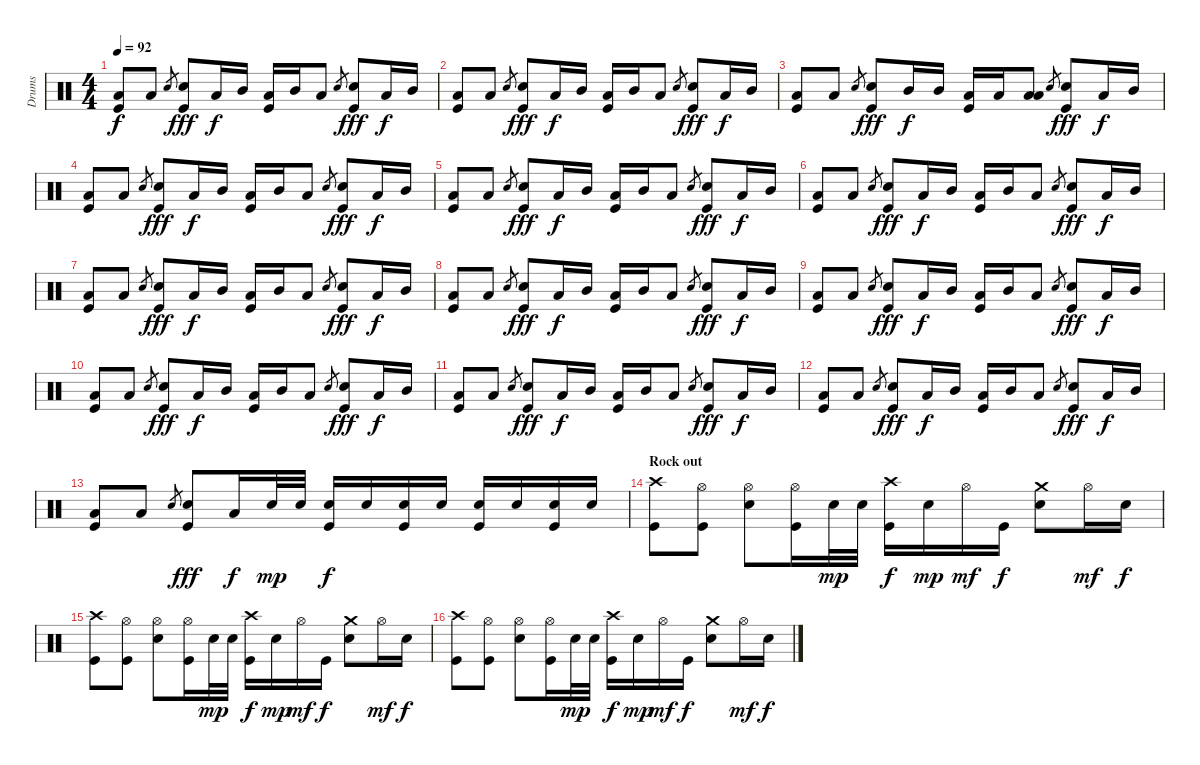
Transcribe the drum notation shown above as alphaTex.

\track ("Drums" "Drums") {instrument percussion}
\staff {score}
\articulation defaults
\ts (4 4)
\tempo 92
\clef neutral
\ks c
("Low Floor Tom (hit)" "Kick (hit)").8{dy f} "Low Floor Tom (hit)".8 "Electric Snare (hit)".8{gr} ("Electric Snare (hit)" "Kick (hit)").8{dy fff} "Low Floor Tom (hit)".16{dy f} "Mid Tom (hit)".16 ("Low Floor Tom (hit)" "Kick (hit)").16 "Mid Tom (hit)".16 "Low Tom (hit)".8 "Electric Snare (hit)".8{gr} ("Electric Snare (hit)" "Kick (hit)").8{dy fff} "Low Tom (hit)".16{dy f} "Mid Tom (hit)".16 |
("Low Floor Tom (hit)" "Kick (hit)").8 "Low Floor Tom (hit)".8 "Electric Snare (hit)".8{gr} ("Electric Snare (hit)" "Kick (hit)").8{dy fff} "Low Floor Tom (hit)".16{dy f} "Mid Tom (hit)".16 ("Low Floor Tom (hit)" "Kick (hit)").16 "Mid Tom (hit)".16 "Low Tom (hit)".8 "Electric Snare (hit)".8{gr} ("Electric Snare (hit)" "Kick (hit)").8{dy fff} "Low Tom (hit)".16{dy f} "Mid Tom (hit)".16 |
("Low Floor Tom (hit)" "Kick (hit)").8 "Low Floor Tom (hit)".8 "Electric Snare (hit)".8{gr} ("Electric Snare (hit)" "Kick (hit)").8{dy fff} "Mid Tom (hit)".16{dy f} "Mid Tom (hit)".16 ("Low Tom (hit)" "Kick (hit)").16 "Low Tom (hit)".16 ("Low Tom (hit)" "Low Floor Tom (hit)").8 "Electric Snare (hit)".8{gr} ("Electric Snare (hit)" "Kick (hit)").8{dy fff} "Low Tom (hit)".16{dy f} "Mid Tom (hit)".16 |
("Low Floor Tom (hit)" "Kick (hit)").8 "Low Floor Tom (hit)".8 "Electric Snare (hit)".8{gr} ("Electric Snare (hit)" "Kick (hit)").8{dy fff} "Low Floor Tom (hit)".16{dy f} "Mid Tom (hit)".16 ("Low Floor Tom (hit)" "Kick (hit)").16 "Mid Tom (hit)".16 "Low Tom (hit)".8 "Electric Snare (hit)".8{gr} ("Electric Snare (hit)" "Kick (hit)").8{dy fff} "Low Tom (hit)".16{dy f} "Mid Tom (hit)".16 |
("Low Floor Tom (hit)" "Kick (hit)").8 "Low Floor Tom (hit)".8 "Electric Snare (hit)".8{gr} ("Electric Snare (hit)" "Kick (hit)").8{dy fff} "Low Floor Tom (hit)".16{dy f} "Mid Tom (hit)".16 ("Low Floor Tom (hit)" "Kick (hit)").16 "Mid Tom (hit)".16 "Low Tom (hit)".8 "Electric Snare (hit)".8{gr} ("Electric Snare (hit)" "Kick (hit)").8{dy fff} "Low Tom (hit)".16{dy f} "Mid Tom (hit)".16 |
("Low Floor Tom (hit)" "Kick (hit)").8 "Low Floor Tom (hit)".8 "Electric Snare (hit)".8{gr} ("Electric Snare (hit)" "Kick (hit)").8{dy fff} "Low Floor Tom (hit)".16{dy f} "Mid Tom (hit)".16 ("Low Floor Tom (hit)" "Kick (hit)").16 "Mid Tom (hit)".16 "Low Tom (hit)".8 "Electric Snare (hit)".8{gr} ("Electric Snare (hit)" "Kick (hit)").8{dy fff} "Low Tom (hit)".16{dy f} "Mid Tom (hit)".16 |
("Low Floor Tom (hit)" "Kick (hit)").8 "Low Floor Tom (hit)".8 "Electric Snare (hit)".8{gr} ("Electric Snare (hit)" "Kick (hit)").8{dy fff} "Low Floor Tom (hit)".16{dy f} "Mid Tom (hit)".16 ("Low Floor Tom (hit)" "Kick (hit)").16 "Mid Tom (hit)".16 "Low Tom (hit)".8 "Electric Snare (hit)".8{gr} ("Electric Snare (hit)" "Kick (hit)").8{dy fff} "Low Tom (hit)".16{dy f} "Mid Tom (hit)".16 |
("Low Floor Tom (hit)" "Kick (hit)").8 "Low Floor Tom (hit)".8 "Electric Snare (hit)".8{gr} ("Electric Snare (hit)" "Kick (hit)").8{dy fff} "Low Floor Tom (hit)".16{dy f} "Mid Tom (hit)".16 ("Low Floor Tom (hit)" "Kick (hit)").16 "Mid Tom (hit)".16 "Low Tom (hit)".8 "Electric Snare (hit)".8{gr} ("Electric Snare (hit)" "Kick (hit)").8{dy fff} "Low Tom (hit)".16{dy f} "Mid Tom (hit)".16 |
("Low Floor Tom (hit)" "Kick (hit)").8 "Low Floor Tom (hit)".8 "Electric Snare (hit)".8{gr} ("Electric Snare (hit)" "Kick (hit)").8{dy fff} "Low Floor Tom (hit)".16{dy f} "Mid Tom (hit)".16 ("Low Floor Tom (hit)" "Kick (hit)").16 "Mid Tom (hit)".16 "Low Tom (hit)".8 "Electric Snare (hit)".8{gr} ("Electric Snare (hit)" "Kick (hit)").8{dy fff} "Low Tom (hit)".16{dy f} "Mid Tom (hit)".16 |
("Low Floor Tom (hit)" "Kick (hit)").8 "Low Floor Tom (hit)".8 "Electric Snare (hit)".8{gr} ("Electric Snare (hit)" "Kick (hit)").8{dy fff} "Low Floor Tom (hit)".16{dy f} "Mid Tom (hit)".16 ("Low Floor Tom (hit)" "Kick (hit)").16 "Mid Tom (hit)".16 "Low Tom (hit)".8 "Electric Snare (hit)".8{gr} ("Electric Snare (hit)" "Kick (hit)").8{dy fff} "Low Tom (hit)".16{dy f} "Mid Tom (hit)".16 |
("Low Floor Tom (hit)" "Kick (hit)").8 "Low Floor Tom (hit)".8 "Electric Snare (hit)".8{gr} ("Electric Snare (hit)" "Kick (hit)").8{dy fff} "Low Floor Tom (hit)".16{dy f} "Mid Tom (hit)".16 ("Low Floor Tom (hit)" "Kick (hit)").16 "Mid Tom (hit)".16 "Low Tom (hit)".8 "Electric Snare (hit)".8{gr} ("Electric Snare (hit)" "Kick (hit)").8{dy fff} "Low Tom (hit)".16{dy f} "Mid Tom (hit)".16 |
("Low Floor Tom (hit)" "Kick (hit)").8 "Low Floor Tom (hit)".8 "Electric Snare (hit)".8{gr} ("Electric Snare (hit)" "Kick (hit)").8{dy fff} "Low Floor Tom (hit)".16{dy f} "Mid Tom (hit)".16 ("Low Floor Tom (hit)" "Kick (hit)").16 "Mid Tom (hit)".16 "Low Tom (hit)".8 "Electric Snare (hit)".8{gr} ("Electric Snare (hit)" "Kick (hit)").8{dy fff} "Low Tom (hit)".16{dy f} "Mid Tom (hit)".16 |
("Low Floor Tom (hit)" "Kick (hit)").8 "Low Floor Tom (hit)".8 "Electric Snare (hit)".8{gr} ("Electric Snare (hit)" "Kick (hit)").8{dy fff} "Low Floor Tom (hit)".16{dy f} "Electric Snare (hit)".32{dy mp} "Electric Snare (hit)".32 ("Electric Snare (hit)" "Kick (hit)").16{dy f} "Electric Snare (hit)".16 ("Electric Snare (hit)" "Kick (hit)").16 "Electric Snare (hit)".16 ("Electric Snare (hit)" "Kick (hit)").16 "Electric Snare (hit)".16 ("Electric Snare (hit)" "Kick (hit)").16 "Electric Snare (hit)".16 |
\section ("" "Rock out")
("Crash high (hit)" "Kick (hit)").8 ("Hi-Hat (open)" "Kick (hit)").8 ("Hi-Hat (open)" "Electric Snare (hit)").8 ("Hi-Hat (open)" "Kick (hit)").16 "Electric Snare (hit)".32{dy mp} "Electric Snare (hit)".32 ("Crash high (hit)" "Kick (hit)").16{dy f} "Electric Snare (hit)".16{dy mp} "Hi-Hat (open)".16{dy mf} "Kick (hit)".16{dy f} ("Crash medium (hit)" "Electric Snare (hit)").8 "Hi-Hat (open)".16{dy mf} "Electric Snare (hit)".16{dy f} |
("Crash high (hit)" "Kick (hit)").8 ("Hi-Hat (open)" "Kick (hit)").8 ("Hi-Hat (open)" "Electric Snare (hit)").8 ("Hi-Hat (open)" "Kick (hit)").16 "Electric Snare (hit)".32{dy mp} "Electric Snare (hit)".32 ("Crash high (hit)" "Kick (hit)").16{dy f} "Electric Snare (hit)".16{dy mp} "Hi-Hat (open)".16{dy mf} "Kick (hit)".16{dy f} ("Crash medium (hit)" "Electric Snare (hit)").8 "Hi-Hat (open)".16{dy mf} "Electric Snare (hit)".16{dy f} |
("Crash high (hit)" "Kick (hit)").8 ("Hi-Hat (open)" "Kick (hit)").8 ("Hi-Hat (open)" "Electric Snare (hit)").8 ("Hi-Hat (open)" "Kick (hit)").16 "Electric Snare (hit)".32{dy mp} "Electric Snare (hit)".32 ("Crash high (hit)" "Kick (hit)").16{dy f} "Electric Snare (hit)".16{dy mp} "Hi-Hat (open)".16{dy mf} "Kick (hit)".16{dy f} ("Crash medium (hit)" "Electric Snare (hit)").8 "Hi-Hat (open)".16{dy mf} "Electric Snare (hit)".16{dy f}
